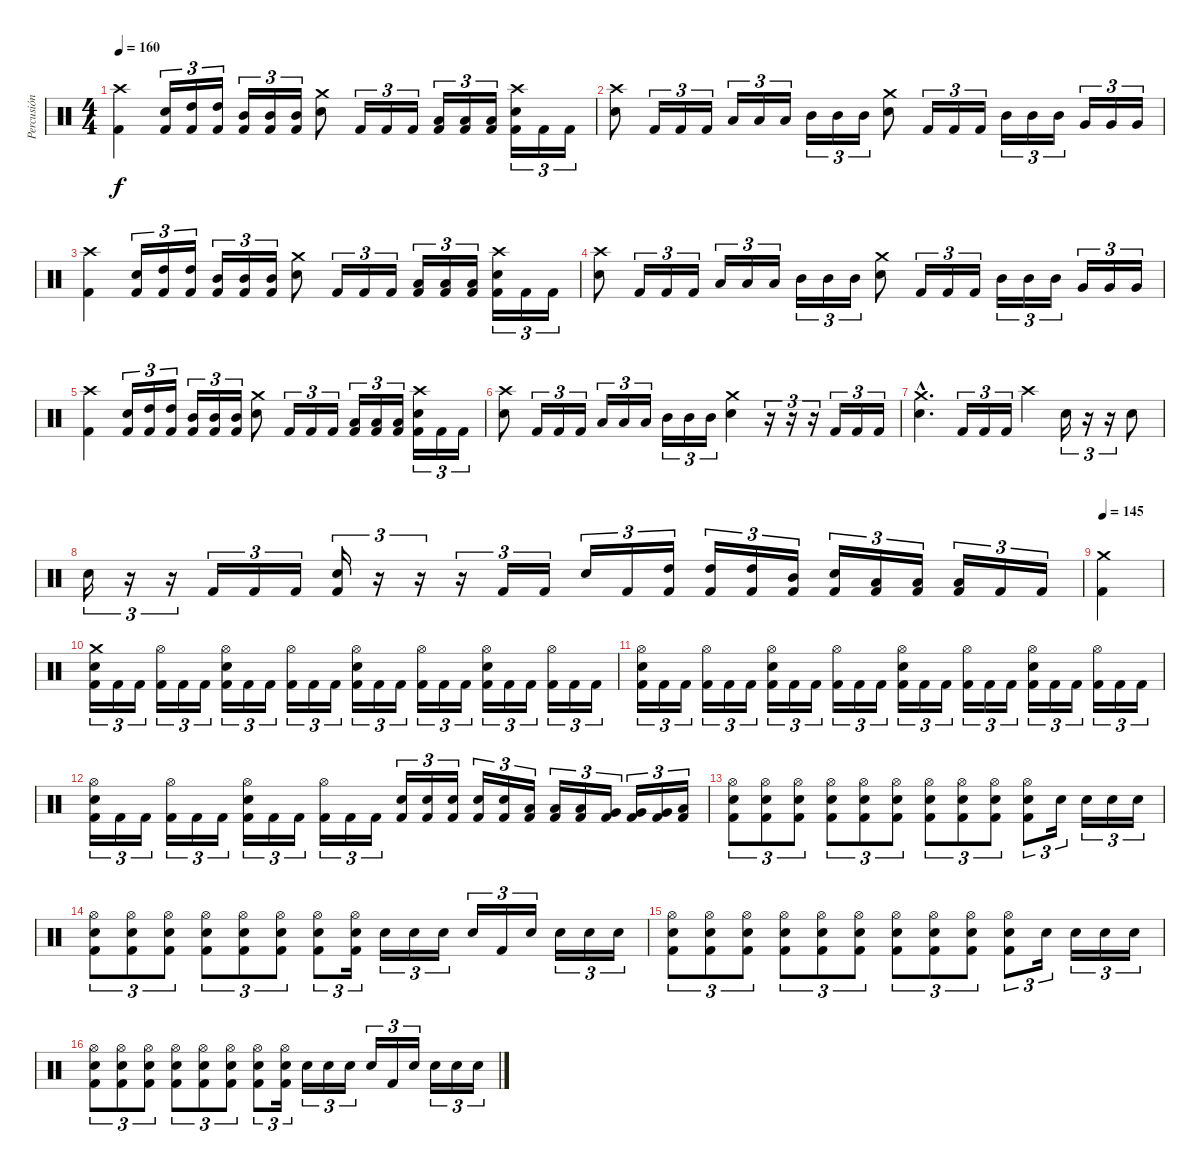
\track ("Percusión" "Percusión") {instrument percussion}
\staff {score}
\articulation defaults
\ts (4 4)
\tempo 160
\clef neutral
\ks c
("Crash high (hit)" "Kick (hit) 2").4{dy f} ("Electric Snare (hit)" "Kick (hit) 2").16{tu (3 2)} ("High Tom (hit)" "Kick (hit) 2").16{tu (3 2)} ("High Tom (hit)" "Kick (hit) 2").16{tu (3 2)} ("Mid Tom (hit)" "Kick (hit) 2").16{tu (3 2)} ("Mid Tom (hit)" "Kick (hit) 2").16{tu (3 2)} ("Mid Tom (hit)" "Kick (hit) 2").16{tu (3 2)} ("Crash medium (hit)" "Electric Snare (hit)").8 "Kick (hit) 2".16{tu (3 2)} "Kick (hit) 2".16{tu (3 2)} "Kick (hit) 2".16{tu (3 2)} ("Low Tom (hit)" "Kick (hit) 2").16{tu (3 2)} ("Low Tom (hit)" "Kick (hit) 2").16{tu (3 2)} ("Low Tom (hit)" "Kick (hit) 2").16{tu (3 2)} ("Crash high (hit)" "Electric Snare (hit)" "Kick (hit) 2").16{tu (3 2)} "Kick (hit) 2".16{tu (3 2)} "Kick (hit) 2".16{tu (3 2)} |
("Crash high (hit)" "Electric Snare (hit)").8 "Kick (hit) 2".16{tu (3 2)} "Kick (hit) 2".16{tu (3 2)} "Kick (hit) 2".16{tu (3 2)} "Low Tom (hit)".16{tu (3 2)} "Low Tom (hit)".16{tu (3 2)} "Low Tom (hit)".16{tu (3 2)} "Mid Tom (hit)".16{tu (3 2)} "Mid Tom (hit)".16{tu (3 2)} "Mid Tom (hit)".16{tu (3 2)} ("Crash medium (hit)" "Electric Snare (hit)").8 "Kick (hit) 2".16{tu (3 2)} "Kick (hit) 2".16{tu (3 2)} "Kick (hit) 2".16{tu (3 2)} "Mid Tom (hit)".16{tu (3 2)} "Mid Tom (hit)".16{tu (3 2)} "Mid Tom (hit)".16{tu (3 2)} "Very Low Tom (hit)".16{tu (3 2)} "Very Low Tom (hit)".16{tu (3 2)} "Very Low Tom (hit)".16{tu (3 2)} |
("Crash high (hit)" "Kick (hit) 2").4 ("Electric Snare (hit)" "Kick (hit) 2").16{tu (3 2)} ("High Tom (hit)" "Kick (hit) 2").16{tu (3 2)} ("High Tom (hit)" "Kick (hit) 2").16{tu (3 2)} ("Mid Tom (hit)" "Kick (hit) 2").16{tu (3 2)} ("Mid Tom (hit)" "Kick (hit) 2").16{tu (3 2)} ("Mid Tom (hit)" "Kick (hit) 2").16{tu (3 2)} ("Crash medium (hit)" "Electric Snare (hit)").8 "Kick (hit) 2".16{tu (3 2)} "Kick (hit) 2".16{tu (3 2)} "Kick (hit) 2".16{tu (3 2)} ("Low Tom (hit)" "Kick (hit) 2").16{tu (3 2)} ("Low Tom (hit)" "Kick (hit) 2").16{tu (3 2)} ("Low Tom (hit)" "Kick (hit) 2").16{tu (3 2)} ("Crash high (hit)" "Electric Snare (hit)" "Kick (hit) 2").16{tu (3 2)} "Kick (hit) 2".16{tu (3 2)} "Kick (hit) 2".16{tu (3 2)} |
("Crash high (hit)" "Electric Snare (hit)").8 "Kick (hit) 2".16{tu (3 2)} "Kick (hit) 2".16{tu (3 2)} "Kick (hit) 2".16{tu (3 2)} "Low Tom (hit)".16{tu (3 2)} "Low Tom (hit)".16{tu (3 2)} "Low Tom (hit)".16{tu (3 2)} "Mid Tom (hit)".16{tu (3 2)} "Mid Tom (hit)".16{tu (3 2)} "Mid Tom (hit)".16{tu (3 2)} ("Crash medium (hit)" "Electric Snare (hit)").8 "Kick (hit) 2".16{tu (3 2)} "Kick (hit) 2".16{tu (3 2)} "Kick (hit) 2".16{tu (3 2)} "Mid Tom (hit)".16{tu (3 2)} "Mid Tom (hit)".16{tu (3 2)} "Mid Tom (hit)".16{tu (3 2)} "Very Low Tom (hit)".16{tu (3 2)} "Very Low Tom (hit)".16{tu (3 2)} "Very Low Tom (hit)".16{tu (3 2)} |
("Crash high (hit)" "Kick (hit) 2").4 ("Electric Snare (hit)" "Kick (hit) 2").16{tu (3 2)} ("High Tom (hit)" "Kick (hit) 2").16{tu (3 2)} ("High Tom (hit)" "Kick (hit) 2").16{tu (3 2)} ("Mid Tom (hit)" "Kick (hit) 2").16{tu (3 2)} ("Mid Tom (hit)" "Kick (hit) 2").16{tu (3 2)} ("Mid Tom (hit)" "Kick (hit) 2").16{tu (3 2)} ("Crash medium (hit)" "Electric Snare (hit)").8 "Kick (hit) 2".16{tu (3 2)} "Kick (hit) 2".16{tu (3 2)} "Kick (hit) 2".16{tu (3 2)} ("Low Tom (hit)" "Kick (hit) 2").16{tu (3 2)} ("Low Tom (hit)" "Kick (hit) 2").16{tu (3 2)} ("Low Tom (hit)" "Kick (hit) 2").16{tu (3 2)} ("Crash high (hit)" "Electric Snare (hit)" "Kick (hit) 2").16{tu (3 2)} "Kick (hit) 2".16{tu (3 2)} "Kick (hit) 2".16{tu (3 2)} |
("Crash high (hit)" "Electric Snare (hit)").8 "Kick (hit) 2".16{tu (3 2)} "Kick (hit) 2".16{tu (3 2)} "Kick (hit) 2".16{tu (3 2)} "Low Tom (hit)".16{tu (3 2)} "Low Tom (hit)".16{tu (3 2)} "Low Tom (hit)".16{tu (3 2)} "Mid Tom (hit)".16{tu (3 2)} "Mid Tom (hit)".16{tu (3 2)} "Mid Tom (hit)".16{tu (3 2)} ("Crash medium (hit)" "Electric Snare (hit)").4 r.16{tu (3 2)} r.16{tu (3 2)} r.16{tu (3 2)} "Kick (hit) 2".16{tu (3 2)} "Kick (hit) 2".16{tu (3 2)} "Kick (hit) 2".16{tu (3 2)} |
("Crash medium (hit)"{hac} "Electric Snare (hit)"{hac}).4{d} "Kick (hit) 2".16{tu (3 2)} "Kick (hit) 2".16{tu (3 2)} "Kick (hit) 2".16{tu (3 2)} "Crash high (hit)".4 "Electric Snare (hit)".16{tu (3 2)} r.16{tu (3 2)} r.16{tu (3 2)} "Electric Snare (hit)".8 |
"Electric Snare (hit)".16{tu (3 2)} r.16{tu (3 2)} r.16{tu (3 2)} "Kick (hit) 2".16{tu (3 2)} "Kick (hit) 2".16{tu (3 2)} "Kick (hit) 2".16{tu (3 2)} ("Electric Snare (hit)" "Kick (hit) 2").16{tu (3 2)} r.16{tu (3 2)} r.16{tu (3 2)} r.16{tu (3 2)} "Kick (hit) 2".16{tu (3 2)} "Kick (hit) 2".16{tu (3 2)} "Electric Snare (hit)".16{tu (3 2)} "Kick (hit) 2".16{tu (3 2)} ("High Tom (hit)" "Kick (hit) 2").16{tu (3 2)} ("High Tom (hit)" "Kick (hit) 2").16{tu (3 2)} ("High Tom (hit)" "Kick (hit) 2").16{tu (3 2)} ("Mid Tom (hit)" "Kick (hit) 2").16{tu (3 2)} ("Electric Snare (hit)" "Kick (hit) 2").16{tu (3 2)} ("Low Tom (hit)" "Kick (hit) 2").16{tu (3 2)} ("Low Tom (hit)" "Kick (hit) 2").16{tu (3 2)} ("Low Tom (hit)" "Kick (hit) 2").16{tu (3 2)} "Kick (hit) 2".16{tu (3 2)} "Kick (hit) 2".16{tu (3 2)} |
\tempo 145
("Crash medium (hit)" "Kick (hit) 2").4 |
("Crash medium (hit)" "Electric Snare (hit)" "Kick (hit) 2").16{tu (3 2)} "Kick (hit) 2".16{tu (3 2)} "Kick (hit) 2".16{tu (3 2)} ("Hi-Hat (open)" "Kick (hit) 2").16{tu (3 2)} "Kick (hit) 2".16{tu (3 2)} "Kick (hit) 2".16{tu (3 2)} ("Hi-Hat (open)" "Electric Snare (hit)" "Kick (hit) 2").16{tu (3 2)} "Kick (hit) 2".16{tu (3 2)} "Kick (hit) 2".16{tu (3 2)} ("Hi-Hat (open)" "Kick (hit) 2").16{tu (3 2)} "Kick (hit) 2".16{tu (3 2)} "Kick (hit) 2".16{tu (3 2)} ("Hi-Hat (open)" "Electric Snare (hit)" "Kick (hit) 2").16{tu (3 2)} "Kick (hit) 2".16{tu (3 2)} "Kick (hit) 2".16{tu (3 2)} ("Hi-Hat (open)" "Kick (hit) 2").16{tu (3 2)} "Kick (hit) 2".16{tu (3 2)} "Kick (hit) 2".16{tu (3 2)} ("Hi-Hat (open)" "Electric Snare (hit)" "Kick (hit) 2").16{tu (3 2)} "Kick (hit) 2".16{tu (3 2)} "Kick (hit) 2".16{tu (3 2)} ("Hi-Hat (open)" "Kick (hit) 2").16{tu (3 2)} "Kick (hit) 2".16{tu (3 2)} "Kick (hit) 2".16{tu (3 2)} |
("Hi-Hat (open)" "Electric Snare (hit)" "Kick (hit) 2").16{tu (3 2)} "Kick (hit) 2".16{tu (3 2)} "Kick (hit) 2".16{tu (3 2)} ("Hi-Hat (open)" "Kick (hit) 2").16{tu (3 2)} "Kick (hit) 2".16{tu (3 2)} "Kick (hit) 2".16{tu (3 2)} ("Hi-Hat (open)" "Electric Snare (hit)" "Kick (hit) 2").16{tu (3 2)} "Kick (hit) 2".16{tu (3 2)} "Kick (hit) 2".16{tu (3 2)} ("Hi-Hat (open)" "Kick (hit) 2").16{tu (3 2)} "Kick (hit) 2".16{tu (3 2)} "Kick (hit) 2".16{tu (3 2)} ("Hi-Hat (open)" "Electric Snare (hit)" "Kick (hit) 2").16{tu (3 2)} "Kick (hit) 2".16{tu (3 2)} "Kick (hit) 2".16{tu (3 2)} ("Hi-Hat (open)" "Kick (hit) 2").16{tu (3 2)} "Kick (hit) 2".16{tu (3 2)} "Kick (hit) 2".16{tu (3 2)} ("Hi-Hat (open)" "Electric Snare (hit)" "Kick (hit) 2").16{tu (3 2)} "Kick (hit) 2".16{tu (3 2)} "Kick (hit) 2".16{tu (3 2)} ("Hi-Hat (open)" "Kick (hit) 2").16{tu (3 2)} "Kick (hit) 2".16{tu (3 2)} "Kick (hit) 2".16{tu (3 2)} |
("Hi-Hat (open)" "Electric Snare (hit)" "Kick (hit) 2").16{tu (3 2)} "Kick (hit) 2".16{tu (3 2)} "Kick (hit) 2".16{tu (3 2)} ("Hi-Hat (open)" "Kick (hit) 2").16{tu (3 2)} "Kick (hit) 2".16{tu (3 2)} "Kick (hit) 2".16{tu (3 2)} ("Hi-Hat (open)" "Electric Snare (hit)" "Kick (hit) 2").16{tu (3 2)} "Kick (hit) 2".16{tu (3 2)} "Kick (hit) 2".16{tu (3 2)} ("Hi-Hat (open)" "Kick (hit) 2").16{tu (3 2)} "Kick (hit) 2".16{tu (3 2)} "Kick (hit) 2".16{tu (3 2)} ("Electric Snare (hit)" "Kick (hit) 2").16{tu (3 2)} ("Electric Snare (hit)" "Kick (hit) 2").16{tu (3 2)} ("Electric Snare (hit)" "Kick (hit) 2").16{tu (3 2)} ("Electric Snare (hit)" "Kick (hit) 2").16{tu (3 2)} ("Electric Snare (hit)" "Kick (hit) 2").16{tu (3 2)} ("Low Tom (hit)" "Kick (hit) 2").16{tu (3 2)} ("Low Tom (hit)" "Kick (hit) 2").16{tu (3 2)} ("Low Tom (hit)" "Kick (hit) 2").16{tu (3 2)} ("Very Low Tom (hit)" "Kick (hit) 2").16{tu (3 2)} ("Very Low Tom (hit)" "Kick (hit) 2").16{tu (3 2)} ("Very Low Tom (hit)" "Kick (hit) 2").16{tu (3 2)} ("Low Floor Tom (hit)" "Kick (hit) 2").16{tu (3 2)} |
("Hi-Hat (open)" "Electric Snare (hit)" "Kick (hit) 2").8{tu (3 2)} ("Hi-Hat (open)" "Electric Snare (hit)" "Kick (hit) 2").8{tu (3 2)} ("Hi-Hat (open)" "Electric Snare (hit)" "Kick (hit) 2").8{tu (3 2)} ("Hi-Hat (open)" "Electric Snare (hit)" "Kick (hit) 2").8{tu (3 2)} ("Hi-Hat (open)" "Electric Snare (hit)" "Kick (hit) 2").8{tu (3 2)} ("Hi-Hat (open)" "Electric Snare (hit)" "Kick (hit) 2").8{tu (3 2)} ("Hi-Hat (open)" "Electric Snare (hit)" "Kick (hit) 2").8{tu (3 2)} ("Hi-Hat (open)" "Electric Snare (hit)" "Kick (hit) 2").8{tu (3 2)} ("Hi-Hat (open)" "Electric Snare (hit)" "Kick (hit) 2").8{tu (3 2)} ("Hi-Hat (open)" "Electric Snare (hit)" "Kick (hit) 2").8{tu (3 2)} "Electric Snare (hit)".16{tu (3 2)} "Electric Snare (hit)".16{tu (3 2)} "Electric Snare (hit)".16{tu (3 2)} "Electric Snare (hit)".16{tu (3 2)} |
("Hi-Hat (open)" "Electric Snare (hit)" "Kick (hit) 2").8{tu (3 2)} ("Hi-Hat (open)" "Electric Snare (hit)" "Kick (hit) 2").8{tu (3 2)} ("Hi-Hat (open)" "Electric Snare (hit)" "Kick (hit) 2").8{tu (3 2)} ("Hi-Hat (open)" "Electric Snare (hit)" "Kick (hit) 2").8{tu (3 2)} ("Hi-Hat (open)" "Electric Snare (hit)" "Kick (hit) 2").8{tu (3 2)} ("Hi-Hat (open)" "Electric Snare (hit)" "Kick (hit) 2").8{tu (3 2)} ("Hi-Hat (open)" "Electric Snare (hit)" "Kick (hit) 2").8{tu (3 2)} ("Hi-Hat (open)" "Electric Snare (hit)" "Kick (hit) 2").16{tu (3 2)} "Electric Snare (hit)".16{tu (3 2)} "Electric Snare (hit)".16{tu (3 2)} "Electric Snare (hit)".16{tu (3 2)} "Electric Snare (hit)".16{tu (3 2)} "Kick (hit) 2".16{tu (3 2)} "Electric Snare (hit)".16{tu (3 2)} "Electric Snare (hit)".16{tu (3 2)} "Electric Snare (hit)".16{tu (3 2)} "Electric Snare (hit)".16{tu (3 2)} |
("Hi-Hat (open)" "Electric Snare (hit)" "Kick (hit) 2").8{tu (3 2)} ("Hi-Hat (open)" "Electric Snare (hit)" "Kick (hit) 2").8{tu (3 2)} ("Hi-Hat (open)" "Electric Snare (hit)" "Kick (hit) 2").8{tu (3 2)} ("Hi-Hat (open)" "Electric Snare (hit)" "Kick (hit) 2").8{tu (3 2)} ("Hi-Hat (open)" "Electric Snare (hit)" "Kick (hit) 2").8{tu (3 2)} ("Hi-Hat (open)" "Electric Snare (hit)" "Kick (hit) 2").8{tu (3 2)} ("Hi-Hat (open)" "Electric Snare (hit)" "Kick (hit) 2").8{tu (3 2)} ("Hi-Hat (open)" "Electric Snare (hit)" "Kick (hit) 2").8{tu (3 2)} ("Hi-Hat (open)" "Electric Snare (hit)" "Kick (hit) 2").8{tu (3 2)} ("Hi-Hat (open)" "Electric Snare (hit)" "Kick (hit) 2").8{tu (3 2)} "Electric Snare (hit)".16{tu (3 2)} "Electric Snare (hit)".16{tu (3 2)} "Electric Snare (hit)".16{tu (3 2)} "Electric Snare (hit)".16{tu (3 2)} |
("Hi-Hat (open)" "Electric Snare (hit)" "Kick (hit) 2").8{tu (3 2)} ("Hi-Hat (open)" "Electric Snare (hit)" "Kick (hit) 2").8{tu (3 2)} ("Hi-Hat (open)" "Electric Snare (hit)" "Kick (hit) 2").8{tu (3 2)} ("Hi-Hat (open)" "Electric Snare (hit)" "Kick (hit) 2").8{tu (3 2)} ("Hi-Hat (open)" "Electric Snare (hit)" "Kick (hit) 2").8{tu (3 2)} ("Hi-Hat (open)" "Electric Snare (hit)" "Kick (hit) 2").8{tu (3 2)} ("Hi-Hat (open)" "Electric Snare (hit)" "Kick (hit) 2").8{tu (3 2)} ("Hi-Hat (open)" "Electric Snare (hit)" "Kick (hit) 2").16{tu (3 2)} "Electric Snare (hit)".16{tu (3 2)} "Electric Snare (hit)".16{tu (3 2)} "Electric Snare (hit)".16{tu (3 2)} "Electric Snare (hit)".16{tu (3 2)} "Kick (hit) 2".16{tu (3 2)} "Electric Snare (hit)".16{tu (3 2)} "Electric Snare (hit)".16{tu (3 2)} "Electric Snare (hit)".16{tu (3 2)} "Electric Snare (hit)".16{tu (3 2)}
